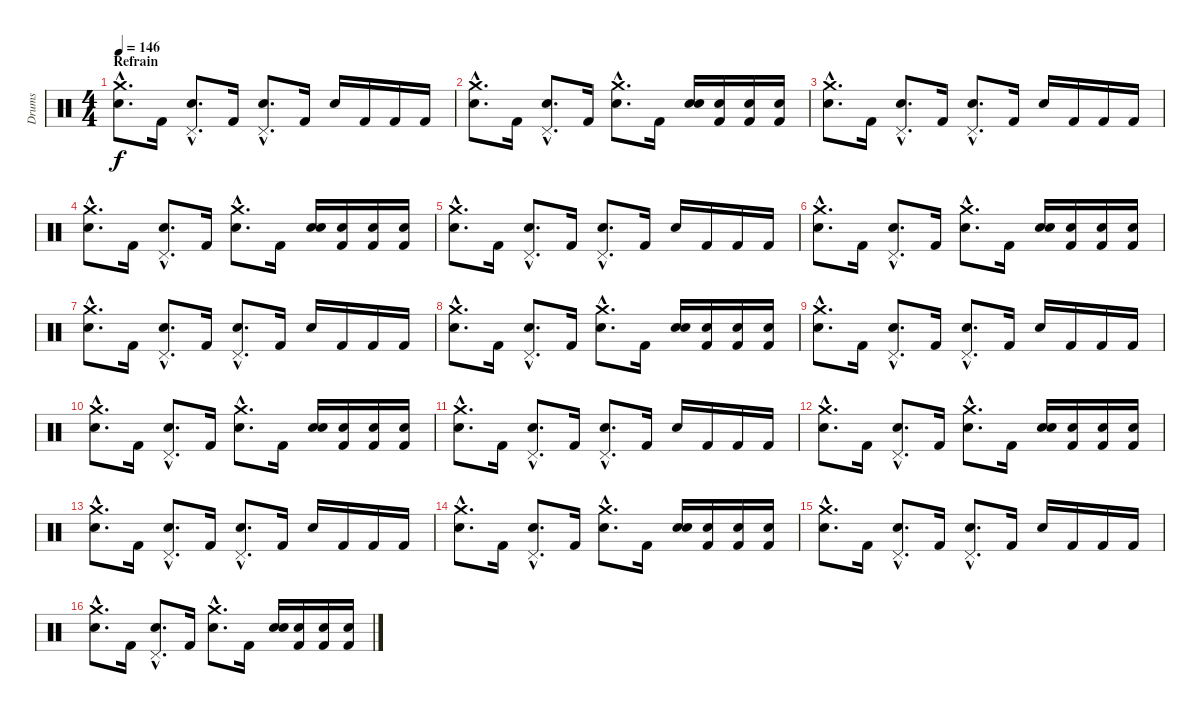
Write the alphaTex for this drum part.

\track ("Drums" "Drums") {instrument percussion}
\staff {score}
\articulation defaults
\ts (4 4)
\section ("" "Refrain")
\tempo 146
\clef neutral
\ks c
("Electric Snare (hit)"{hac} "Crash medium (hit)").8{d dy f} "Kick (hit) 2".16 ("Electric Snare (hit)"{hac} "Pedal Hi-Hat (hit)"{hac}).8{d} "Kick (hit) 2".16 ("Electric Snare (hit)"{hac} "Pedal Hi-Hat (hit)"{hac}).8{d} "Kick (hit) 2".16 "Electric Snare (hit)".16 "Kick (hit) 2".16 "Kick (hit) 2".16 "Kick (hit) 2".16 |
("Electric Snare (hit)"{hac} "Crash medium (hit)").8{d} "Kick (hit) 2".16 ("Electric Snare (hit)"{hac} "Pedal Hi-Hat (hit)"{hac}).8{d} "Kick (hit) 2".16 ("Electric Snare (hit)"{hac} "Crash medium (hit)"{hac}).8{d} "Kick (hit) 2".16 ("Electric Snare (hit)" "Snare (hit) 2").16 ("Kick (hit) 2" "Snare (hit) 2").16 ("Kick (hit) 2" "Snare (hit) 2").16 ("Kick (hit) 2" "Snare (hit) 2").16 |
("Electric Snare (hit)"{hac} "Crash medium (hit)").8{d} "Kick (hit) 2".16 ("Electric Snare (hit)"{hac} "Pedal Hi-Hat (hit)"{hac}).8{d} "Kick (hit) 2".16 ("Electric Snare (hit)"{hac} "Pedal Hi-Hat (hit)"{hac}).8{d} "Kick (hit) 2".16 "Electric Snare (hit)".16 "Kick (hit) 2".16 "Kick (hit) 2".16 "Kick (hit) 2".16 |
("Electric Snare (hit)"{hac} "Crash medium (hit)").8{d} "Kick (hit) 2".16 ("Electric Snare (hit)"{hac} "Pedal Hi-Hat (hit)"{hac}).8{d} "Kick (hit) 2".16 ("Electric Snare (hit)"{hac} "Crash medium (hit)"{hac}).8{d} "Kick (hit) 2".16 ("Electric Snare (hit)" "Snare (hit) 2").16 ("Kick (hit) 2" "Snare (hit) 2").16 ("Kick (hit) 2" "Snare (hit) 2").16 ("Kick (hit) 2" "Snare (hit) 2").16 |
("Electric Snare (hit)"{hac} "Crash medium (hit)").8{d} "Kick (hit) 2".16 ("Electric Snare (hit)"{hac} "Pedal Hi-Hat (hit)"{hac}).8{d} "Kick (hit) 2".16 ("Electric Snare (hit)"{hac} "Pedal Hi-Hat (hit)"{hac}).8{d} "Kick (hit) 2".16 "Electric Snare (hit)".16 "Kick (hit) 2".16 "Kick (hit) 2".16 "Kick (hit) 2".16 |
("Electric Snare (hit)"{hac} "Crash medium (hit)").8{d} "Kick (hit) 2".16 ("Electric Snare (hit)"{hac} "Pedal Hi-Hat (hit)"{hac}).8{d} "Kick (hit) 2".16 ("Electric Snare (hit)"{hac} "Crash medium (hit)"{hac}).8{d} "Kick (hit) 2".16 ("Electric Snare (hit)" "Snare (hit) 2").16 ("Kick (hit) 2" "Snare (hit) 2").16 ("Kick (hit) 2" "Snare (hit) 2").16 ("Kick (hit) 2" "Snare (hit) 2").16 |
("Electric Snare (hit)"{hac} "Crash medium (hit)").8{d} "Kick (hit) 2".16 ("Electric Snare (hit)"{hac} "Pedal Hi-Hat (hit)"{hac}).8{d} "Kick (hit) 2".16 ("Electric Snare (hit)"{hac} "Pedal Hi-Hat (hit)"{hac}).8{d} "Kick (hit) 2".16 "Electric Snare (hit)".16 "Kick (hit) 2".16 "Kick (hit) 2".16 "Kick (hit) 2".16 |
("Electric Snare (hit)"{hac} "Crash medium (hit)").8{d} "Kick (hit) 2".16 ("Electric Snare (hit)"{hac} "Pedal Hi-Hat (hit)"{hac}).8{d} "Kick (hit) 2".16 ("Electric Snare (hit)"{hac} "Crash medium (hit)"{hac}).8{d} "Kick (hit) 2".16 ("Electric Snare (hit)" "Snare (hit) 2").16 ("Kick (hit) 2" "Snare (hit) 2").16 ("Kick (hit) 2" "Snare (hit) 2").16 ("Kick (hit) 2" "Snare (hit) 2").16 |
("Electric Snare (hit)"{hac} "Crash medium (hit)").8{d} "Kick (hit) 2".16 ("Electric Snare (hit)"{hac} "Pedal Hi-Hat (hit)"{hac}).8{d} "Kick (hit) 2".16 ("Electric Snare (hit)"{hac} "Pedal Hi-Hat (hit)"{hac}).8{d} "Kick (hit) 2".16 "Electric Snare (hit)".16 "Kick (hit) 2".16 "Kick (hit) 2".16 "Kick (hit) 2".16 |
("Electric Snare (hit)"{hac} "Crash medium (hit)").8{d} "Kick (hit) 2".16 ("Electric Snare (hit)"{hac} "Pedal Hi-Hat (hit)"{hac}).8{d} "Kick (hit) 2".16 ("Electric Snare (hit)"{hac} "Crash medium (hit)"{hac}).8{d} "Kick (hit) 2".16 ("Electric Snare (hit)" "Snare (hit) 2").16 ("Kick (hit) 2" "Snare (hit) 2").16 ("Kick (hit) 2" "Snare (hit) 2").16 ("Kick (hit) 2" "Snare (hit) 2").16 |
("Electric Snare (hit)"{hac} "Crash medium (hit)").8{d} "Kick (hit) 2".16 ("Electric Snare (hit)"{hac} "Pedal Hi-Hat (hit)"{hac}).8{d} "Kick (hit) 2".16 ("Electric Snare (hit)"{hac} "Pedal Hi-Hat (hit)"{hac}).8{d} "Kick (hit) 2".16 "Electric Snare (hit)".16 "Kick (hit) 2".16 "Kick (hit) 2".16 "Kick (hit) 2".16 |
("Electric Snare (hit)"{hac} "Crash medium (hit)").8{d} "Kick (hit) 2".16 ("Electric Snare (hit)"{hac} "Pedal Hi-Hat (hit)"{hac}).8{d} "Kick (hit) 2".16 ("Electric Snare (hit)"{hac} "Crash medium (hit)"{hac}).8{d} "Kick (hit) 2".16 ("Electric Snare (hit)" "Snare (hit) 2").16 ("Kick (hit) 2" "Snare (hit) 2").16 ("Kick (hit) 2" "Snare (hit) 2").16 ("Kick (hit) 2" "Snare (hit) 2").16 |
("Electric Snare (hit)"{hac} "Crash medium (hit)").8{d} "Kick (hit) 2".16 ("Electric Snare (hit)"{hac} "Pedal Hi-Hat (hit)"{hac}).8{d} "Kick (hit) 2".16 ("Electric Snare (hit)"{hac} "Pedal Hi-Hat (hit)"{hac}).8{d} "Kick (hit) 2".16 "Electric Snare (hit)".16 "Kick (hit) 2".16 "Kick (hit) 2".16 "Kick (hit) 2".16 |
("Electric Snare (hit)"{hac} "Crash medium (hit)").8{d} "Kick (hit) 2".16 ("Electric Snare (hit)"{hac} "Pedal Hi-Hat (hit)"{hac}).8{d} "Kick (hit) 2".16 ("Electric Snare (hit)"{hac} "Crash medium (hit)"{hac}).8{d} "Kick (hit) 2".16 ("Electric Snare (hit)" "Snare (hit) 2").16 ("Kick (hit) 2" "Snare (hit) 2").16 ("Kick (hit) 2" "Snare (hit) 2").16 ("Kick (hit) 2" "Snare (hit) 2").16 |
("Electric Snare (hit)"{hac} "Crash medium (hit)").8{d} "Kick (hit) 2".16 ("Electric Snare (hit)"{hac} "Pedal Hi-Hat (hit)"{hac}).8{d} "Kick (hit) 2".16 ("Electric Snare (hit)"{hac} "Pedal Hi-Hat (hit)"{hac}).8{d} "Kick (hit) 2".16 "Electric Snare (hit)".16 "Kick (hit) 2".16 "Kick (hit) 2".16 "Kick (hit) 2".16 |
("Electric Snare (hit)"{hac} "Crash medium (hit)").8{d} "Kick (hit) 2".16 ("Electric Snare (hit)"{hac} "Pedal Hi-Hat (hit)"{hac}).8{d} "Kick (hit) 2".16 ("Electric Snare (hit)"{hac} "Crash medium (hit)"{hac}).8{d} "Kick (hit) 2".16 ("Electric Snare (hit)" "Snare (hit) 2").16 ("Kick (hit) 2" "Snare (hit) 2").16 ("Kick (hit) 2" "Snare (hit) 2").16 ("Kick (hit) 2" "Snare (hit) 2").16
